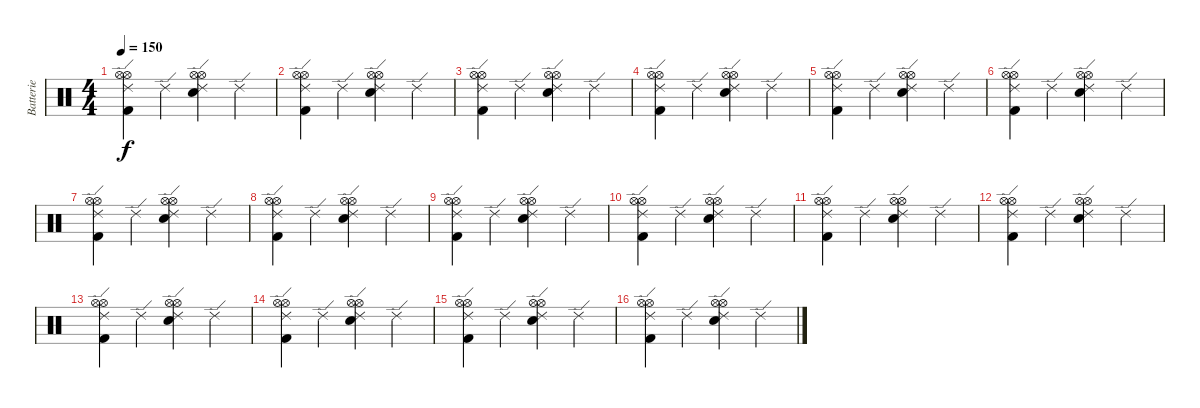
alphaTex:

\track ("Batterie" "Batterie") {instrument percussion}
\staff {score}
\articulation defaults
\ts (4 4)
\tempo 150
\clef neutral
\ks c
("Hi-Hat (open)" "Hi-Hat (open)" "Ride (edge) 2" "Kick (hit) 2").4{dy f} "Ride (edge) 2".4 ("Snare (hit) 2" "Hi-Hat (open)" "Hi-Hat (open)" "Ride (edge) 2").4 "Ride (edge) 2".4 |
("Hi-Hat (open)" "Hi-Hat (open)" "Ride (edge) 2" "Kick (hit) 2").4 "Ride (edge) 2".4 ("Snare (hit) 2" "Hi-Hat (open)" "Hi-Hat (open)" "Ride (edge) 2").4 "Ride (edge) 2".4 |
("Hi-Hat (open)" "Hi-Hat (open)" "Ride (edge) 2" "Kick (hit) 2").4 "Ride (edge) 2".4 ("Snare (hit) 2" "Hi-Hat (open)" "Hi-Hat (open)" "Ride (edge) 2").4 "Ride (edge) 2".4 |
("Hi-Hat (open)" "Hi-Hat (open)" "Ride (edge) 2" "Kick (hit) 2").4 "Ride (edge) 2".4 ("Snare (hit) 2" "Hi-Hat (open)" "Hi-Hat (open)" "Ride (edge) 2").4 "Ride (edge) 2".4 |
("Hi-Hat (open)" "Hi-Hat (open)" "Ride (edge) 2" "Kick (hit) 2").4 "Ride (edge) 2".4 ("Snare (hit) 2" "Hi-Hat (open)" "Hi-Hat (open)" "Ride (edge) 2").4 "Ride (edge) 2".4 |
("Hi-Hat (open)" "Hi-Hat (open)" "Ride (edge) 2" "Kick (hit) 2").4 "Ride (edge) 2".4 ("Snare (hit) 2" "Hi-Hat (open)" "Hi-Hat (open)" "Ride (edge) 2").4 "Ride (edge) 2".4 |
("Hi-Hat (open)" "Hi-Hat (open)" "Ride (edge) 2" "Kick (hit) 2").4 "Ride (edge) 2".4 ("Snare (hit) 2" "Hi-Hat (open)" "Hi-Hat (open)" "Ride (edge) 2").4 "Ride (edge) 2".4 |
("Hi-Hat (open)" "Hi-Hat (open)" "Ride (edge) 2" "Kick (hit) 2").4 "Ride (edge) 2".4 ("Snare (hit) 2" "Hi-Hat (open)" "Hi-Hat (open)" "Ride (edge) 2").4 "Ride (edge) 2".4 |
("Hi-Hat (open)" "Hi-Hat (open)" "Ride (edge) 2" "Kick (hit) 2").4 "Ride (edge) 2".4 ("Snare (hit) 2" "Hi-Hat (open)" "Hi-Hat (open)" "Ride (edge) 2").4 "Ride (edge) 2".4 |
("Hi-Hat (open)" "Hi-Hat (open)" "Ride (edge) 2" "Kick (hit) 2").4 "Ride (edge) 2".4 ("Snare (hit) 2" "Hi-Hat (open)" "Hi-Hat (open)" "Ride (edge) 2").4 "Ride (edge) 2".4 |
("Hi-Hat (open)" "Hi-Hat (open)" "Ride (edge) 2" "Kick (hit) 2").4 "Ride (edge) 2".4 ("Snare (hit) 2" "Hi-Hat (open)" "Hi-Hat (open)" "Ride (edge) 2").4 "Ride (edge) 2".4 |
("Hi-Hat (open)" "Hi-Hat (open)" "Ride (edge) 2" "Kick (hit) 2").4 "Ride (edge) 2".4 ("Snare (hit) 2" "Hi-Hat (open)" "Hi-Hat (open)" "Ride (edge) 2").4 "Ride (edge) 2".4 |
("Hi-Hat (open)" "Hi-Hat (open)" "Ride (edge) 2" "Kick (hit) 2").4 "Ride (edge) 2".4 ("Snare (hit) 2" "Hi-Hat (open)" "Hi-Hat (open)" "Ride (edge) 2").4 "Ride (edge) 2".4 |
("Hi-Hat (open)" "Hi-Hat (open)" "Ride (edge) 2" "Kick (hit) 2").4 "Ride (edge) 2".4 ("Snare (hit) 2" "Hi-Hat (open)" "Hi-Hat (open)" "Ride (edge) 2").4 "Ride (edge) 2".4 |
("Hi-Hat (open)" "Hi-Hat (open)" "Ride (edge) 2" "Kick (hit) 2").4 "Ride (edge) 2".4 ("Snare (hit) 2" "Hi-Hat (open)" "Hi-Hat (open)" "Ride (edge) 2").4 "Ride (edge) 2".4 |
("Hi-Hat (open)" "Hi-Hat (open)" "Ride (edge) 2" "Kick (hit) 2").4 "Ride (edge) 2".4 ("Snare (hit) 2" "Hi-Hat (open)" "Hi-Hat (open)" "Ride (edge) 2").4 "Ride (edge) 2".4
